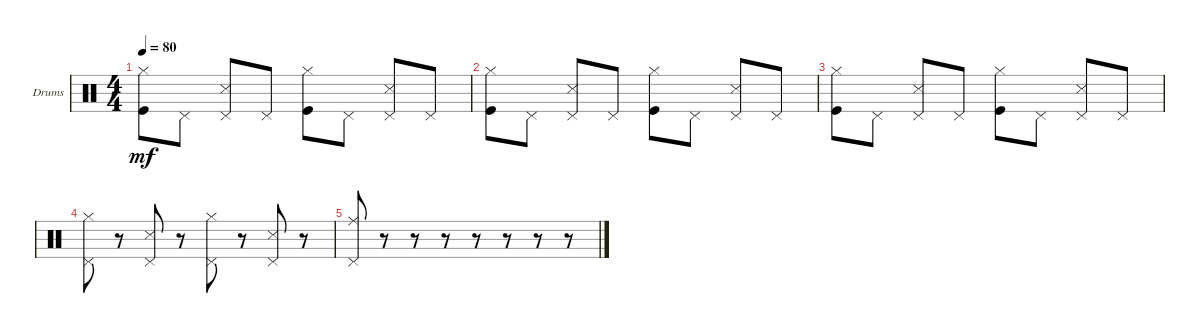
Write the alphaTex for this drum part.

\defaultSystemsLayout 4
\bracketExtendMode groupsimilarinstruments
\firstSystemTrackNameOrientation horizontal
\otherSystemsTrackNameOrientation horizontal
\track ("Drumkit" "Drums") {instrument percussion}
\staff {score}
\articulation defaults
\ts (4 4)
\tempo 80
\clef neutral
\ks c
("Hi-Hat (closed)" "Kick (hit)").8{dy mf} "Pedal Hi-Hat (hit)".8 ("Pedal Hi-Hat (hit)" "Snare (side stick) 3").8 "Pedal Hi-Hat (hit)".8 ("Hi-Hat (closed)" "Kick (hit)").8 "Pedal Hi-Hat (hit)".8 ("Pedal Hi-Hat (hit)" "Snare (side stick) 3").8 "Pedal Hi-Hat (hit)".8 |
("Hi-Hat (closed)" "Kick (hit)").8 "Pedal Hi-Hat (hit)".8 ("Pedal Hi-Hat (hit)" "Snare (side stick) 3").8 "Pedal Hi-Hat (hit)".8 ("Hi-Hat (closed)" "Kick (hit)").8 "Pedal Hi-Hat (hit)".8 ("Pedal Hi-Hat (hit)" "Snare (side stick) 3").8 "Pedal Hi-Hat (hit)".8 |
("Hi-Hat (closed)" "Kick (hit)").8 "Pedal Hi-Hat (hit)".8 ("Pedal Hi-Hat (hit)" "Snare (side stick) 3").8 "Pedal Hi-Hat (hit)".8 ("Hi-Hat (closed)" "Kick (hit)").8 "Pedal Hi-Hat (hit)".8 ("Pedal Hi-Hat (hit)" "Snare (side stick) 3").8 "Pedal Hi-Hat (hit)".8 |
("Hi-Hat (closed)" "Pedal Hi-Hat (hit)").8 r.8 ("Pedal Hi-Hat (hit)" "Snare (side stick) 3").8 r.8 ("Hi-Hat (closed)" "Pedal Hi-Hat (hit)").8 r.8 ("Pedal Hi-Hat (hit)" "Snare (side stick) 3").8 r.8 |
("Pedal Hi-Hat (hit)" "Ride (middle)").8 r.8 r.8 r.8 r.8 r.8 r.8 r.8
